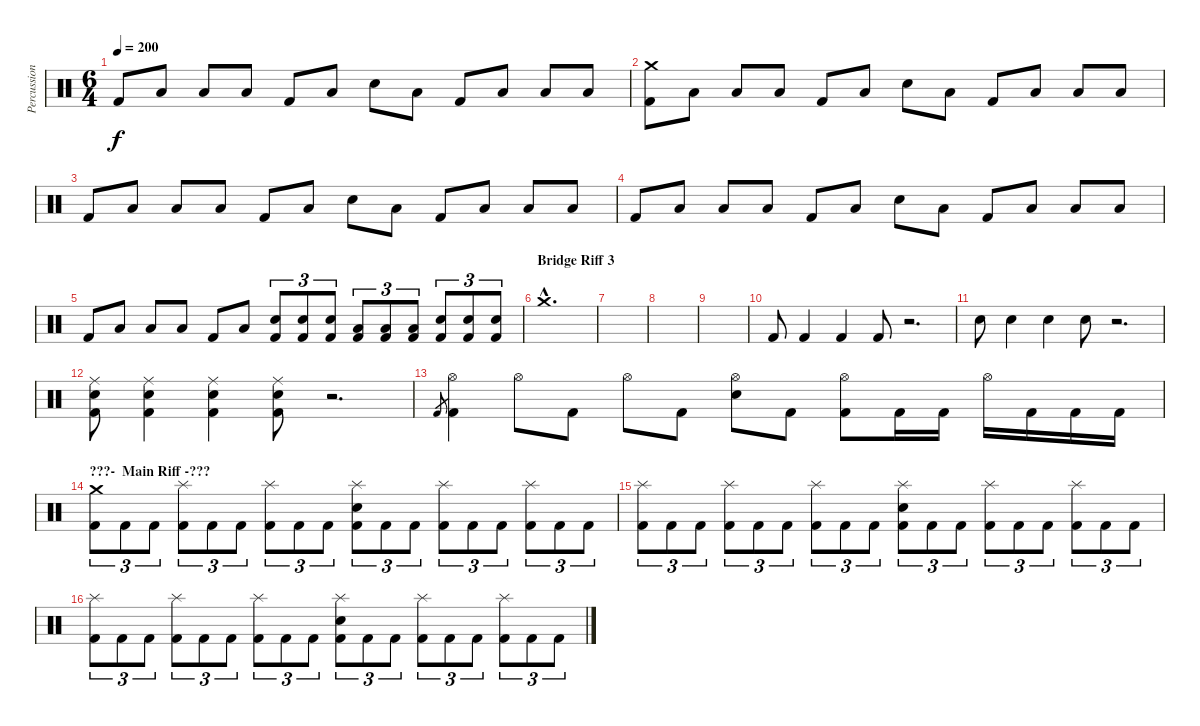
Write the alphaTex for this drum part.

\track ("Percussion" "Percussion") {instrument percussion}
\staff {score}
\articulation defaults
\ts (6 4)
\tempo 200
\clef neutral
\ks c "Kick (hit) 2".8{dy f} "Low Tom (hit)".8 "Low Floor Tom (hit)".8 "Low Floor Tom (hit)".8 "Kick (hit) 2".8 "Low Tom (hit)".8 "Electric Snare (hit)".8 "Low Floor Tom (hit)".8 "Kick (hit) 2".8 "Low Tom (hit)".8 "Low Floor Tom (hit)".8 "Low Floor Tom (hit)".8
|
("Crash medium (hit)" "Kick (hit) 2").8 "Low Tom (hit)".8 "Low Floor Tom (hit)".8 "Low Floor Tom (hit)".8 "Kick (hit) 2".8 "Low Tom (hit)".8 "Electric Snare (hit)".8 "Low Floor Tom (hit)".8 "Kick (hit) 2".8 "Low Tom (hit)".8 "Low Floor Tom (hit)".8 "Low Floor Tom (hit)".8 |
"Kick (hit) 2".8 "Low Tom (hit)".8 "Low Floor Tom (hit)".8 "Low Floor Tom (hit)".8 "Kick (hit) 2".8 "Low Tom (hit)".8 "Electric Snare (hit)".8 "Low Floor Tom (hit)".8 "Kick (hit) 2".8 "Low Tom (hit)".8 "Low Floor Tom (hit)".8 "Low Floor Tom (hit)".8 |
"Kick (hit) 2".8 "Low Tom (hit)".8 "Low Floor Tom (hit)".8 "Low Floor Tom (hit)".8 "Kick (hit) 2".8 "Low Tom (hit)".8 "Electric Snare (hit)".8 "Low Floor Tom (hit)".8 "Kick (hit) 2".8 "Low Tom (hit)".8 "Low Floor Tom (hit)".8 "Low Floor Tom (hit)".8 |
"Kick (hit) 2".8 "Low Tom (hit)".8 "Low Floor Tom (hit)".8 "Low Floor Tom (hit)".8 "Kick (hit) 2".8 "Low Tom (hit)".8 ("Electric Snare (hit)" "Kick (hit) 2").8{tu (3 2)} ("Electric Snare (hit)" "Kick (hit) 2").8{tu (3 2)} ("Electric Snare (hit)" "Kick (hit) 2").8{tu (3 2)} ("Low Floor Tom (hit)" "Kick (hit) 2").8{tu (3 2)} ("Low Floor Tom (hit)" "Kick (hit) 2").8{tu (3 2)} ("Low Floor Tom (hit)" "Kick (hit) 2").8{tu (3 2)} ("Electric Snare (hit)" "Kick (hit) 2").8{tu (3 2)} ("Electric Snare (hit)" "Kick (hit) 2").8{tu (3 2)} ("Electric Snare (hit)" "Kick (hit) 2").8{tu (3 2)} |
\section ("" "Bridge Riff 3")
"Crash medium (hit)"{hac}.1{d} |
|
|
|
"Kick (hit) 2".8 "Kick (hit) 2".4 "Kick (hit) 2".4 "Kick (hit) 2".8 r.2{d} |
"Electric Snare (hit)".8 "Electric Snare (hit)".4 "Electric Snare (hit)".4 "Electric Snare (hit)".8 r.2{d} |
("Ride (middle)" "Electric Snare (hit)" "Kick (hit) 2").8 ("Ride (middle)" "Electric Snare (hit)" "Kick (hit) 2").4 ("Ride (middle)" "Electric Snare (hit)" "Kick (hit) 2").4 ("Ride (middle)" "Electric Snare (hit)" "Kick (hit) 2").8 r.2{d} |
"Kick (hit) 2".8{gr} ("Hi-Hat (open)" "Kick (hit) 2").4 "Hi-Hat (open)".8 "Kick (hit) 2".8 "Hi-Hat (open)".8 "Kick (hit) 2".8 ("Hi-Hat (open)" "Electric Snare (hit)").8 "Kick (hit) 2".8 ("Hi-Hat (open)" "Kick (hit) 2").8 "Kick (hit) 2".16 "Kick (hit) 2".16 "Hi-Hat (open)".16 "Kick (hit) 2".16 "Kick (hit) 2".16 "Kick (hit) 2".16 |
\section ("" "???-  Main Riff -???")
("Crash medium (hit)" "Kick (hit) 2").8{tu (3 2)} "Kick (hit) 2".8{tu (3 2)} "Kick (hit) 2".8{tu (3 2)} ("Splash (hit)" "Kick (hit) 2").8{tu (3 2)} "Kick (hit) 2".8{tu (3 2)} "Kick (hit) 2".8{tu (3 2)} ("Splash (hit)" "Kick (hit) 2").8{tu (3 2)} "Kick (hit) 2".8{tu (3 2)} "Kick (hit) 2".8{tu (3 2)} ("Splash (hit)" "Electric Snare (hit)" "Kick (hit) 2").8{tu (3 2)} "Kick (hit) 2".8{tu (3 2)} "Kick (hit) 2".8{tu (3 2)} ("Splash (hit)" "Kick (hit) 2").8{tu (3 2)} "Kick (hit) 2".8{tu (3 2)} "Kick (hit) 2".8{tu (3 2)} ("Splash (hit)" "Kick (hit) 2").8{tu (3 2)} "Kick (hit) 2".8{tu (3 2)} "Kick (hit) 2".8{tu (3 2)} |
("Splash (hit)" "Kick (hit) 2").8{tu (3 2)} "Kick (hit) 2".8{tu (3 2)} "Kick (hit) 2".8{tu (3 2)} ("Splash (hit)" "Kick (hit) 2").8{tu (3 2)} "Kick (hit) 2".8{tu (3 2)} "Kick (hit) 2".8{tu (3 2)} ("Splash (hit)" "Kick (hit) 2").8{tu (3 2)} "Kick (hit) 2".8{tu (3 2)} "Kick (hit) 2".8{tu (3 2)} ("Splash (hit)" "Electric Snare (hit)" "Kick (hit) 2").8{tu (3 2)} "Kick (hit) 2".8{tu (3 2)} "Kick (hit) 2".8{tu (3 2)} ("Splash (hit)" "Kick (hit) 2").8{tu (3 2)} "Kick (hit) 2".8{tu (3 2)} "Kick (hit) 2".8{tu (3 2)} ("Splash (hit)" "Kick (hit) 2").8{tu (3 2)} "Kick (hit) 2".8{tu (3 2)} "Kick (hit) 2".8{tu (3 2)} |
("Splash (hit)" "Kick (hit) 2").8{tu (3 2)} "Kick (hit) 2".8{tu (3 2)} "Kick (hit) 2".8{tu (3 2)} ("Splash (hit)" "Kick (hit) 2").8{tu (3 2)} "Kick (hit) 2".8{tu (3 2)} "Kick (hit) 2".8{tu (3 2)} ("Splash (hit)" "Kick (hit) 2").8{tu (3 2)} "Kick (hit) 2".8{tu (3 2)} "Kick (hit) 2".8{tu (3 2)} ("Splash (hit)" "Electric Snare (hit)" "Kick (hit) 2").8{tu (3 2)} "Kick (hit) 2".8{tu (3 2)} "Kick (hit) 2".8{tu (3 2)} ("Splash (hit)" "Kick (hit) 2").8{tu (3 2)} "Kick (hit) 2".8{tu (3 2)} "Kick (hit) 2".8{tu (3 2)} ("Splash (hit)" "Kick (hit) 2").8{tu (3 2)} "Kick (hit) 2".8{tu (3 2)} "Kick (hit) 2".8{tu (3 2)}
